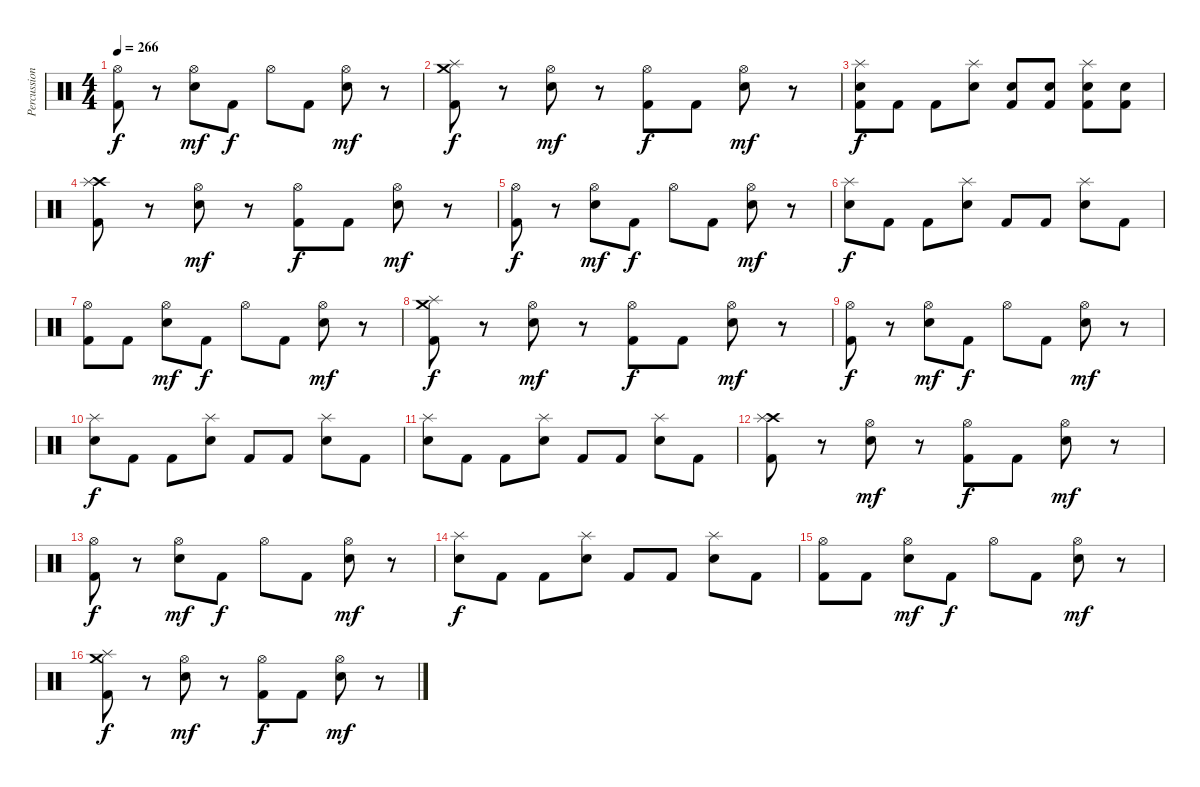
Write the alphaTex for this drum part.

\track ("Percussion" "Percussion") {instrument percussion}
\staff {score}
\articulation defaults
\ts (4 4)
\tempo 266
\clef neutral
\ks c
("Kick (hit) 2" "Hi-Hat (open)").8{dy f} r.8 ("Snare (hit) 2" "Hi-Hat (open)").8{dy mf} "Kick (hit) 2".8{dy f} "Hi-Hat (open)".8 "Kick (hit) 2".8 ("Snare (hit) 2" "Hi-Hat (open)").8{dy mf} r.8 |
("Kick (hit) 2" "Splash (hit)" "Crash medium (hit)").8{dy f} r.8 ("Snare (hit) 2" "Hi-Hat (open)").8{dy mf} r.8 ("Kick (hit) 2" "Hi-Hat (open)").8{dy f} "Kick (hit) 2".8 ("Snare (hit) 2" "Hi-Hat (open)").8{dy mf} r.8 |
("Snare (hit) 2" "Splash (hit)" "Kick (hit) 2").8{dy f} "Kick (hit) 2".8 "Kick (hit) 2".8 ("Snare (hit) 2" "Splash (hit)").8 ("Snare (hit) 2" "Kick (hit) 2").8 ("Snare (hit) 2" "Kick (hit) 2").8 ("Snare (hit) 2" "Kick (hit) 2" "Splash (hit)").8 ("Snare (hit) 2" "Kick (hit) 2").8 |
("Crash high (hit)" "Splash (hit)" "Kick (hit) 2").8 r.8 ("Snare (hit) 2" "Hi-Hat (open)").8{dy mf} r.8 ("Kick (hit) 2" "Hi-Hat (open)").8{dy f} "Kick (hit) 2".8 ("Snare (hit) 2" "Hi-Hat (open)").8{dy mf} r.8 |
("Kick (hit) 2" "Hi-Hat (open)").8{dy f} r.8 ("Snare (hit) 2" "Hi-Hat (open)").8{dy mf} "Kick (hit) 2".8{dy f} "Hi-Hat (open)".8 "Kick (hit) 2".8 ("Snare (hit) 2" "Hi-Hat (open)").8{dy mf} r.8 |
("Snare (hit) 2" "Splash (hit)").8{dy f} "Kick (hit) 2".8 "Kick (hit) 2".8 ("Snare (hit) 2" "Splash (hit)").8 "Kick (hit) 2".8 "Kick (hit) 2".8 ("Snare (hit) 2" "Splash (hit)").8 "Kick (hit) 2".8 |
("Hi-Hat (open)" "Kick (hit) 2").8 "Kick (hit) 2".8 ("Hi-Hat (open)" "Snare (hit) 2").8{dy mf} "Kick (hit) 2".8{dy f} "Hi-Hat (open)".8 "Kick (hit) 2".8 ("Hi-Hat (open)" "Snare (hit) 2").8{dy mf} r.8 |
("Crash medium (hit)" "Splash (hit)" "Kick (hit) 2").8{dy f} r.8 ("Snare (hit) 2" "Hi-Hat (open)").8{dy mf} r.8 ("Kick (hit) 2" "Hi-Hat (open)").8{dy f} "Kick (hit) 2".8 ("Snare (hit) 2" "Hi-Hat (open)").8{dy mf} r.8 |
("Kick (hit) 2" "Hi-Hat (open)").8{dy f} r.8 ("Snare (hit) 2" "Hi-Hat (open)").8{dy mf} "Kick (hit) 2".8{dy f} "Hi-Hat (open)".8 "Kick (hit) 2".8 ("Snare (hit) 2" "Hi-Hat (open)").8{dy mf} r.8 |
("Snare (hit) 2" "Splash (hit)").8{dy f} "Kick (hit) 2".8 "Kick (hit) 2".8 ("Splash (hit)" "Snare (hit) 2").8 "Kick (hit) 2".8 "Kick (hit) 2".8 ("Splash (hit)" "Snare (hit) 2").8 "Kick (hit) 2".8 |
("Snare (hit) 2" "Splash (hit)").8 "Kick (hit) 2".8 "Kick (hit) 2".8 ("Snare (hit) 2" "Splash (hit)").8 "Kick (hit) 2".8 "Kick (hit) 2".8 ("Snare (hit) 2" "Splash (hit)").8 "Kick (hit) 2".8 |
("Crash high (hit)" "Splash (hit)" "Kick (hit) 2").8 r.8 ("Snare (hit) 2" "Hi-Hat (open)").8{dy mf} r.8 ("Kick (hit) 2" "Hi-Hat (open)").8{dy f} "Kick (hit) 2".8 ("Snare (hit) 2" "Hi-Hat (open)").8{dy mf} r.8 |
("Kick (hit) 2" "Hi-Hat (open)").8{dy f} r.8 ("Snare (hit) 2" "Hi-Hat (open)").8{dy mf} "Kick (hit) 2".8{dy f} "Hi-Hat (open)".8 "Kick (hit) 2".8 ("Snare (hit) 2" "Hi-Hat (open)").8{dy mf} r.8 |
("Snare (hit) 2" "Splash (hit)").8{dy f} "Kick (hit) 2".8 "Kick (hit) 2".8 ("Snare (hit) 2" "Splash (hit)").8 "Kick (hit) 2".8 "Kick (hit) 2".8 ("Snare (hit) 2" "Splash (hit)").8 "Kick (hit) 2".8 |
("Hi-Hat (open)" "Kick (hit) 2").8 "Kick (hit) 2".8 ("Hi-Hat (open)" "Snare (hit) 2").8{dy mf} "Kick (hit) 2".8{dy f} "Hi-Hat (open)".8 "Kick (hit) 2".8 ("Hi-Hat (open)" "Snare (hit) 2").8{dy mf} r.8 |
("Crash medium (hit)" "Splash (hit)" "Kick (hit) 2").8{dy f} r.8 ("Snare (hit) 2" "Hi-Hat (open)").8{dy mf} r.8 ("Kick (hit) 2" "Hi-Hat (open)").8{dy f} "Kick (hit) 2".8 ("Snare (hit) 2" "Hi-Hat (open)").8{dy mf} r.8
